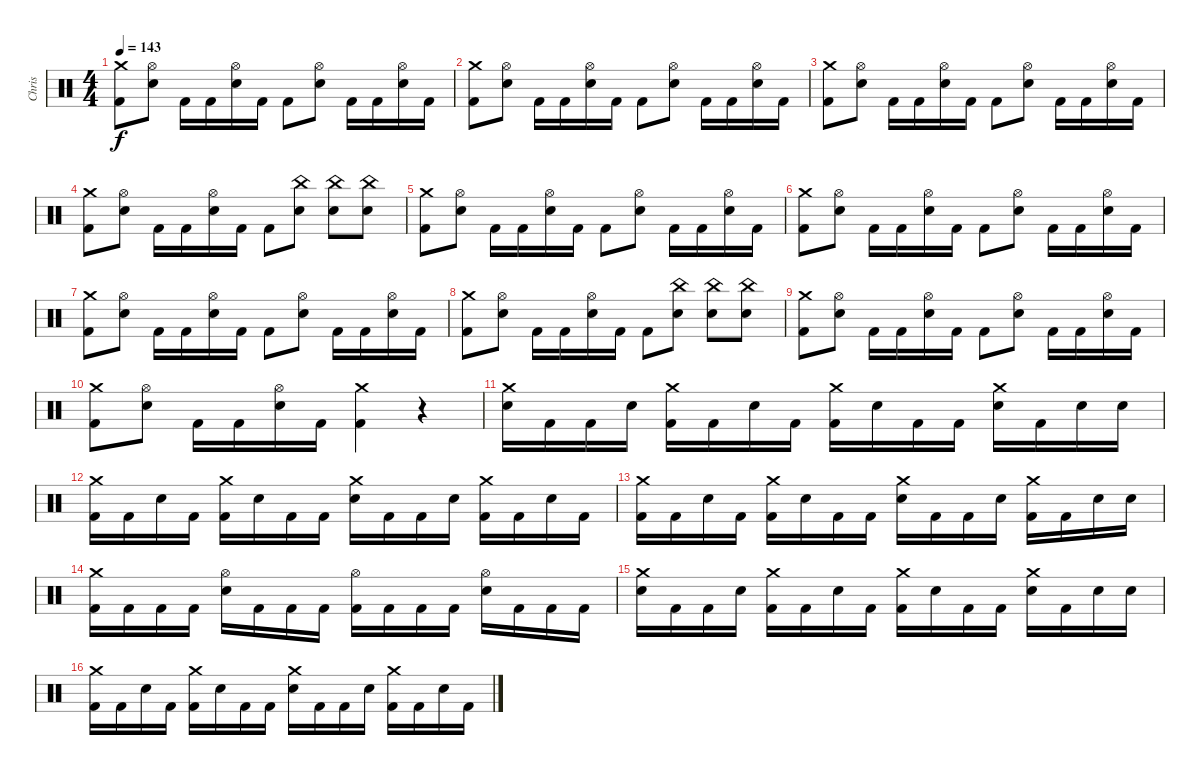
\track ("Chris" "Chris") {instrument percussion}
\staff {score}
\articulation defaults
\ts (4 4)
\tempo 143
\clef neutral
\ks c
("Crash medium (hit)" "Kick (hit) 2").8{dy f} ("Hi-Hat (open)" "Electric Snare (hit)").8 "Kick (hit) 2".16 "Kick (hit) 2".16 ("Hi-Hat (open)" "Electric Snare (hit)").16 "Kick (hit) 2".16 "Kick (hit) 2".8 ("Hi-Hat (open)" "Electric Snare (hit)").8 "Kick (hit) 2".16 "Kick (hit) 2".16 ("Hi-Hat (open)" "Electric Snare (hit)").16 "Kick (hit) 2".16 |
("Crash medium (hit)" "Kick (hit) 2").8 ("Hi-Hat (open)" "Electric Snare (hit)").8 "Kick (hit) 2".16 "Kick (hit) 2".16 ("Hi-Hat (open)" "Electric Snare (hit)").16 "Kick (hit) 2".16 "Kick (hit) 2".8 ("Hi-Hat (open)" "Electric Snare (hit)").8 "Kick (hit) 2".16 "Kick (hit) 2".16 ("Hi-Hat (open)" "Electric Snare (hit)").16 "Kick (hit) 2".16 |
("Crash medium (hit)" "Kick (hit) 2").8 ("Hi-Hat (open)" "Electric Snare (hit)").8 "Kick (hit) 2".16 "Kick (hit) 2".16 ("Hi-Hat (open)" "Electric Snare (hit)").16 "Kick (hit) 2".16 "Kick (hit) 2".8 ("Hi-Hat (open)" "Electric Snare (hit)").8 "Kick (hit) 2".16 "Kick (hit) 2".16 ("Hi-Hat (open)" "Electric Snare (hit)").16 "Kick (hit) 2".16 |
("Crash medium (hit)" "Kick (hit) 2").8 ("Hi-Hat (open)" "Electric Snare (hit)").8 "Kick (hit) 2".16 "Kick (hit) 2".16 ("Hi-Hat (open)" "Electric Snare (hit)").16 "Kick (hit) 2".16 "Kick (hit) 2".8 ("China (hit)" "Electric Snare (hit)").8 ("China (hit)" "Electric Snare (hit)").8 ("China (hit)" "Electric Snare (hit)").8 |
("Crash medium (hit)" "Kick (hit) 2").8 ("Hi-Hat (open)" "Electric Snare (hit)").8 "Kick (hit) 2".16 "Kick (hit) 2".16 ("Hi-Hat (open)" "Electric Snare (hit)").16 "Kick (hit) 2".16 "Kick (hit) 2".8 ("Hi-Hat (open)" "Electric Snare (hit)").8 "Kick (hit) 2".16 "Kick (hit) 2".16 ("Hi-Hat (open)" "Electric Snare (hit)").16 "Kick (hit) 2".16 |
("Crash medium (hit)" "Kick (hit) 2").8 ("Hi-Hat (open)" "Electric Snare (hit)").8 "Kick (hit) 2".16 "Kick (hit) 2".16 ("Hi-Hat (open)" "Electric Snare (hit)").16 "Kick (hit) 2".16 "Kick (hit) 2".8 ("Hi-Hat (open)" "Electric Snare (hit)").8 "Kick (hit) 2".16 "Kick (hit) 2".16 ("Hi-Hat (open)" "Electric Snare (hit)").16 "Kick (hit) 2".16 |
("Crash medium (hit)" "Kick (hit) 2").8 ("Hi-Hat (open)" "Electric Snare (hit)").8 "Kick (hit) 2".16 "Kick (hit) 2".16 ("Hi-Hat (open)" "Electric Snare (hit)").16 "Kick (hit) 2".16 "Kick (hit) 2".8 ("Hi-Hat (open)" "Electric Snare (hit)").8 "Kick (hit) 2".16 "Kick (hit) 2".16 ("Hi-Hat (open)" "Electric Snare (hit)").16 "Kick (hit) 2".16 |
("Crash medium (hit)" "Kick (hit) 2").8 ("Hi-Hat (open)" "Electric Snare (hit)").8 "Kick (hit) 2".16 "Kick (hit) 2".16 ("Hi-Hat (open)" "Electric Snare (hit)").16 "Kick (hit) 2".16 "Kick (hit) 2".8 ("China (hit)" "Electric Snare (hit)").8 ("China (hit)" "Electric Snare (hit)").8 ("China (hit)" "Electric Snare (hit)").8 |
("Crash medium (hit)" "Kick (hit) 2").8 ("Hi-Hat (open)" "Electric Snare (hit)").8 "Kick (hit) 2".16 "Kick (hit) 2".16 ("Hi-Hat (open)" "Electric Snare (hit)").16 "Kick (hit) 2".16 "Kick (hit) 2".8 ("Hi-Hat (open)" "Electric Snare (hit)").8 "Kick (hit) 2".16 "Kick (hit) 2".16 ("Hi-Hat (open)" "Electric Snare (hit)").16 "Kick (hit) 2".16 |
("Crash medium (hit)" "Kick (hit) 2").8 ("Hi-Hat (open)" "Electric Snare (hit)").8 "Kick (hit) 2".16 "Kick (hit) 2".16 ("Hi-Hat (open)" "Electric Snare (hit)").16 "Kick (hit) 2".16 ("Crash medium (hit)" "Kick (hit) 2").4 r.4 |
("Crash medium (hit)" "Electric Snare (hit)").16 "Kick (hit) 2".16 "Kick (hit) 2".16 "Electric Snare (hit)".16 ("Crash medium (hit)" "Kick (hit) 2").16 "Kick (hit) 2".16 "Electric Snare (hit)".16 "Kick (hit) 2".16 ("Crash medium (hit)" "Kick (hit) 2").16 "Electric Snare (hit)".16 "Kick (hit) 2".16 "Kick (hit) 2".16 ("Crash medium (hit)" "Electric Snare (hit)").16 "Kick (hit) 2".16 "Electric Snare (hit)".16 "Electric Snare (hit)".16 |
("Crash medium (hit)" "Kick (hit) 2").16 "Kick (hit) 2".16 "Electric Snare (hit)".16 "Kick (hit) 2".16 ("Crash medium (hit)" "Kick (hit) 2").16 "Electric Snare (hit)".16 "Kick (hit) 2".16 "Kick (hit) 2".16 ("Crash medium (hit)" "Electric Snare (hit)").16 "Kick (hit) 2".16 "Kick (hit) 2".16 "Electric Snare (hit)".16 ("Crash medium (hit)" "Kick (hit) 2").16 "Kick (hit) 2".16 "Electric Snare (hit)".16 "Kick (hit) 2".16 |
("Crash medium (hit)" "Kick (hit) 2").16 "Kick (hit) 2".16 "Electric Snare (hit)".16 "Kick (hit) 2".16 ("Crash medium (hit)" "Kick (hit) 2").16 "Electric Snare (hit)".16 "Kick (hit) 2".16 "Kick (hit) 2".16 ("Crash medium (hit)" "Electric Snare (hit)").16 "Kick (hit) 2".16 "Kick (hit) 2".16 "Electric Snare (hit)".16 ("Crash medium (hit)" "Kick (hit) 2").16 "Kick (hit) 2".16 "Electric Snare (hit)".16 "Electric Snare (hit)".16 |
("Crash medium (hit)" "Kick (hit) 2").16 "Kick (hit) 2".16 "Kick (hit) 2".16 "Kick (hit) 2".16 ("Hi-Hat (open)" "Electric Snare (hit)").16 "Kick (hit) 2".16 "Kick (hit) 2".16 "Kick (hit) 2".16 ("Hi-Hat (open)" "Kick (hit) 2").16 "Kick (hit) 2".16 "Kick (hit) 2".16 "Kick (hit) 2".16 ("Hi-Hat (open)" "Electric Snare (hit)").16 "Kick (hit) 2".16 "Kick (hit) 2".16 "Kick (hit) 2".16 |
("Crash medium (hit)" "Electric Snare (hit)").16 "Kick (hit) 2".16 "Kick (hit) 2".16 "Electric Snare (hit)".16 ("Crash medium (hit)" "Kick (hit) 2").16 "Kick (hit) 2".16 "Electric Snare (hit)".16 "Kick (hit) 2".16 ("Crash medium (hit)" "Kick (hit) 2").16 "Electric Snare (hit)".16 "Kick (hit) 2".16 "Kick (hit) 2".16 ("Crash medium (hit)" "Electric Snare (hit)").16 "Kick (hit) 2".16 "Electric Snare (hit)".16 "Electric Snare (hit)".16 |
("Crash medium (hit)" "Kick (hit) 2").16 "Kick (hit) 2".16 "Electric Snare (hit)".16 "Kick (hit) 2".16 ("Crash medium (hit)" "Kick (hit) 2").16 "Electric Snare (hit)".16 "Kick (hit) 2".16 "Kick (hit) 2".16 ("Crash medium (hit)" "Electric Snare (hit)").16 "Kick (hit) 2".16 "Kick (hit) 2".16 "Electric Snare (hit)".16 ("Crash medium (hit)" "Kick (hit) 2").16 "Kick (hit) 2".16 "Electric Snare (hit)".16 "Kick (hit) 2".16
